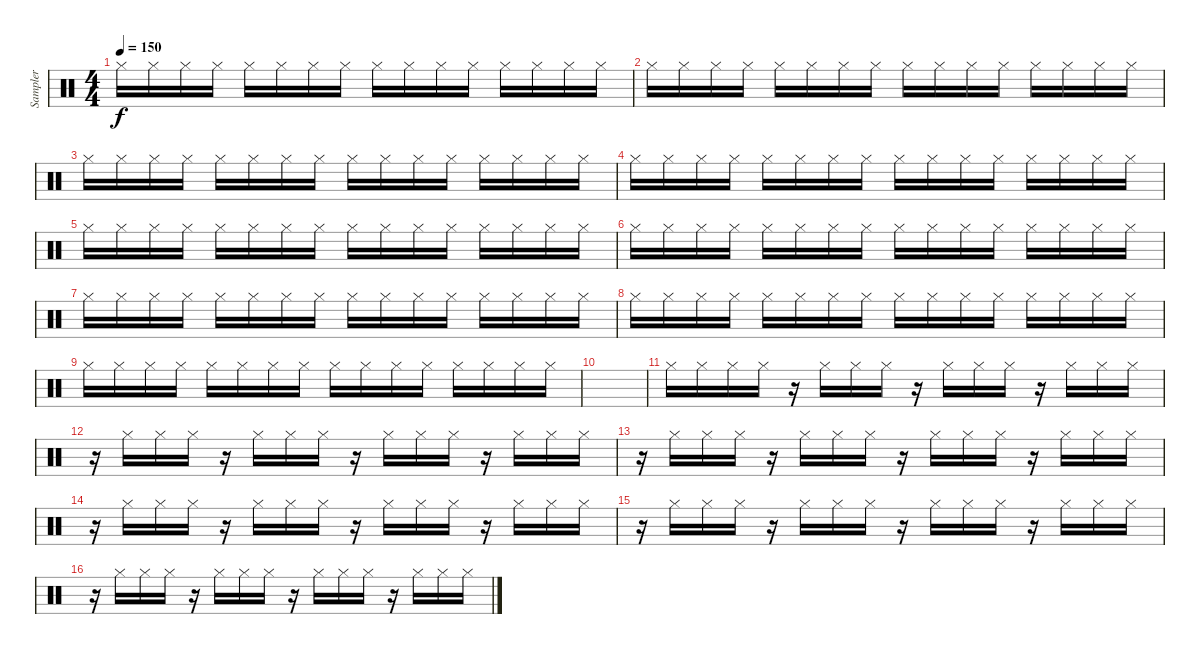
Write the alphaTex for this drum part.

\track ("Sampler" "Sampler") {instrument percussion}
\staff {score}
\articulation defaults
\ts (4 4)
\tempo 150
\clef neutral
\ks c "Hi-Hat (closed)".16{dy f} "Hi-Hat (closed)".16 "Hi-Hat (closed)".16 "Hi-Hat (closed)".16 "Hi-Hat (closed)".16 "Hi-Hat (closed)".16 "Hi-Hat (closed)".16 "Hi-Hat (closed)".16 "Hi-Hat (closed)".16 "Hi-Hat (closed)".16 "Hi-Hat (closed)".16 "Hi-Hat (closed)".16 "Hi-Hat (closed)".16 "Hi-Hat (closed)".16 "Hi-Hat (closed)".16 "Hi-Hat (closed)".16
|
"Hi-Hat (closed)".16 "Hi-Hat (closed)".16 "Hi-Hat (closed)".16 "Hi-Hat (closed)".16 "Hi-Hat (closed)".16 "Hi-Hat (closed)".16 "Hi-Hat (closed)".16 "Hi-Hat (closed)".16 "Hi-Hat (closed)".16 "Hi-Hat (closed)".16 "Hi-Hat (closed)".16 "Hi-Hat (closed)".16 "Hi-Hat (closed)".16 "Hi-Hat (closed)".16 "Hi-Hat (closed)".16 "Hi-Hat (closed)".16 |
"Hi-Hat (closed)".16 "Hi-Hat (closed)".16 "Hi-Hat (closed)".16 "Hi-Hat (closed)".16 "Hi-Hat (closed)".16 "Hi-Hat (closed)".16 "Hi-Hat (closed)".16 "Hi-Hat (closed)".16 "Hi-Hat (closed)".16 "Hi-Hat (closed)".16 "Hi-Hat (closed)".16 "Hi-Hat (closed)".16 "Hi-Hat (closed)".16 "Hi-Hat (closed)".16 "Hi-Hat (closed)".16 "Hi-Hat (closed)".16 |
"Hi-Hat (closed)".16 "Hi-Hat (closed)".16 "Hi-Hat (closed)".16 "Hi-Hat (closed)".16 "Hi-Hat (closed)".16 "Hi-Hat (closed)".16 "Hi-Hat (closed)".16 "Hi-Hat (closed)".16 "Hi-Hat (closed)".16 "Hi-Hat (closed)".16 "Hi-Hat (closed)".16 "Hi-Hat (closed)".16 "Hi-Hat (closed)".16 "Hi-Hat (closed)".16 "Hi-Hat (closed)".16 "Hi-Hat (closed)".16 |
"Hi-Hat (closed)".16 "Hi-Hat (closed)".16 "Hi-Hat (closed)".16 "Hi-Hat (closed)".16 "Hi-Hat (closed)".16 "Hi-Hat (closed)".16 "Hi-Hat (closed)".16 "Hi-Hat (closed)".16 "Hi-Hat (closed)".16 "Hi-Hat (closed)".16 "Hi-Hat (closed)".16 "Hi-Hat (closed)".16 "Hi-Hat (closed)".16 "Hi-Hat (closed)".16 "Hi-Hat (closed)".16 "Hi-Hat (closed)".16 |
"Hi-Hat (closed)".16 "Hi-Hat (closed)".16 "Hi-Hat (closed)".16 "Hi-Hat (closed)".16 "Hi-Hat (closed)".16 "Hi-Hat (closed)".16 "Hi-Hat (closed)".16 "Hi-Hat (closed)".16 "Hi-Hat (closed)".16 "Hi-Hat (closed)".16 "Hi-Hat (closed)".16 "Hi-Hat (closed)".16 "Hi-Hat (closed)".16 "Hi-Hat (closed)".16 "Hi-Hat (closed)".16 "Hi-Hat (closed)".16 |
"Hi-Hat (closed)".16 "Hi-Hat (closed)".16 "Hi-Hat (closed)".16 "Hi-Hat (closed)".16 "Hi-Hat (closed)".16 "Hi-Hat (closed)".16 "Hi-Hat (closed)".16 "Hi-Hat (closed)".16 "Hi-Hat (closed)".16 "Hi-Hat (closed)".16 "Hi-Hat (closed)".16 "Hi-Hat (closed)".16 "Hi-Hat (closed)".16 "Hi-Hat (closed)".16 "Hi-Hat (closed)".16 "Hi-Hat (closed)".16 |
"Hi-Hat (closed)".16 "Hi-Hat (closed)".16 "Hi-Hat (closed)".16 "Hi-Hat (closed)".16 "Hi-Hat (closed)".16 "Hi-Hat (closed)".16 "Hi-Hat (closed)".16 "Hi-Hat (closed)".16 "Hi-Hat (closed)".16 "Hi-Hat (closed)".16 "Hi-Hat (closed)".16 "Hi-Hat (closed)".16 "Hi-Hat (closed)".16 "Hi-Hat (closed)".16 "Hi-Hat (closed)".16 "Hi-Hat (closed)".16 |
"Hi-Hat (closed)".16 "Hi-Hat (closed)".16 "Hi-Hat (closed)".16 "Hi-Hat (closed)".16 "Hi-Hat (closed)".16 "Hi-Hat (closed)".16 "Hi-Hat (closed)".16 "Hi-Hat (closed)".16 "Hi-Hat (closed)".16 "Hi-Hat (closed)".16 "Hi-Hat (closed)".16 "Hi-Hat (closed)".16 "Hi-Hat (closed)".16 "Hi-Hat (closed)".16 "Hi-Hat (closed)".16 "Hi-Hat (closed)".16 |
|
"Hi-Hat (closed)".16 "Hi-Hat (closed)".16 "Hi-Hat (closed)".16 "Hi-Hat (closed)".16 r.16 "Hi-Hat (closed)".16 "Hi-Hat (closed)".16 "Hi-Hat (closed)".16 r.16 "Hi-Hat (closed)".16 "Hi-Hat (closed)".16 "Hi-Hat (closed)".16 r.16 "Hi-Hat (closed)".16 "Hi-Hat (closed)".16 "Hi-Hat (closed)".16 |
r.16 "Hi-Hat (closed)".16 "Hi-Hat (closed)".16 "Hi-Hat (closed)".16 r.16 "Hi-Hat (closed)".16 "Hi-Hat (closed)".16 "Hi-Hat (closed)".16 r.16 "Hi-Hat (closed)".16 "Hi-Hat (closed)".16 "Hi-Hat (closed)".16 r.16 "Hi-Hat (closed)".16 "Hi-Hat (closed)".16 "Hi-Hat (closed)".16 |
r.16 "Hi-Hat (closed)".16 "Hi-Hat (closed)".16 "Hi-Hat (closed)".16 r.16 "Hi-Hat (closed)".16 "Hi-Hat (closed)".16 "Hi-Hat (closed)".16 r.16 "Hi-Hat (closed)".16 "Hi-Hat (closed)".16 "Hi-Hat (closed)".16 r.16 "Hi-Hat (closed)".16 "Hi-Hat (closed)".16 "Hi-Hat (closed)".16 |
r.16 "Hi-Hat (closed)".16 "Hi-Hat (closed)".16 "Hi-Hat (closed)".16 r.16 "Hi-Hat (closed)".16 "Hi-Hat (closed)".16 "Hi-Hat (closed)".16 r.16 "Hi-Hat (closed)".16 "Hi-Hat (closed)".16 "Hi-Hat (closed)".16 r.16 "Hi-Hat (closed)".16 "Hi-Hat (closed)".16 "Hi-Hat (closed)".16 |
r.16 "Hi-Hat (closed)".16 "Hi-Hat (closed)".16 "Hi-Hat (closed)".16 r.16 "Hi-Hat (closed)".16 "Hi-Hat (closed)".16 "Hi-Hat (closed)".16 r.16 "Hi-Hat (closed)".16 "Hi-Hat (closed)".16 "Hi-Hat (closed)".16 r.16 "Hi-Hat (closed)".16 "Hi-Hat (closed)".16 "Hi-Hat (closed)".16 |
r.16 "Hi-Hat (closed)".16 "Hi-Hat (closed)".16 "Hi-Hat (closed)".16 r.16 "Hi-Hat (closed)".16 "Hi-Hat (closed)".16 "Hi-Hat (closed)".16 r.16 "Hi-Hat (closed)".16 "Hi-Hat (closed)".16 "Hi-Hat (closed)".16 r.16 "Hi-Hat (closed)".16 "Hi-Hat (closed)".16 "Hi-Hat (closed)".16
